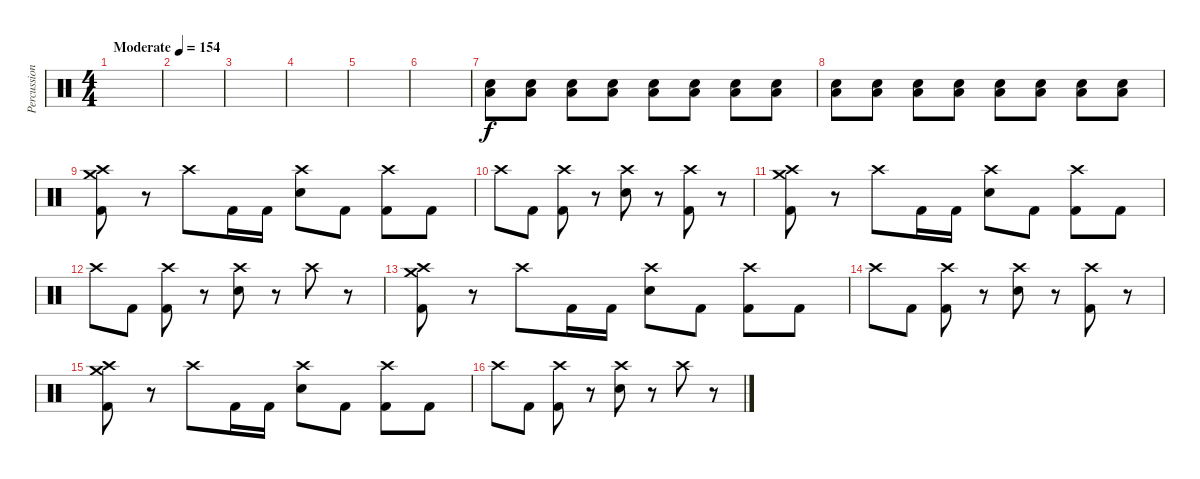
\track ("Percussion" "Percussion") {instrument percussion}
\staff {score}
\articulation defaults
\ts (4 4)
\tempo (154 "Moderate")
\clef neutral
\ks c
|
|
|
|
|
|
("Snare (hit) 2" "Low Floor Tom (hit)").8 ("Snare (hit) 2" "Low Floor Tom (hit)").8 ("Snare (hit) 2" "Low Floor Tom (hit)").8 ("Snare (hit) 2" "Low Floor Tom (hit)").8 ("Snare (hit) 2" "Low Floor Tom (hit)").8 ("Snare (hit) 2" "Low Floor Tom (hit)").8 ("Snare (hit) 2" "Low Floor Tom (hit)").8 ("Snare (hit) 2" "Low Floor Tom (hit)").8 |
("Snare (hit) 2" "Low Floor Tom (hit)").8 ("Snare (hit) 2" "Low Floor Tom (hit)").8 ("Snare (hit) 2" "Low Floor Tom (hit)").8 ("Snare (hit) 2" "Low Floor Tom (hit)").8 ("Snare (hit) 2" "Low Floor Tom (hit)").8 ("Snare (hit) 2" "Low Floor Tom (hit)").8 ("Snare (hit) 2" "Low Floor Tom (hit)").8 ("Snare (hit) 2" "Low Floor Tom (hit)").8 |
("Crash medium (hit)" "Crash high (hit)" "Kick (hit) 2").8 r.8 "Crash high (hit)".8 "Kick (hit) 2".16 "Kick (hit) 2".16 ("Crash high (hit)" "Snare (hit) 2").8 "Kick (hit) 2".8 ("Crash high (hit)" "Kick (hit) 2").8 "Kick (hit) 2".8 |
"Crash high (hit)".8 "Kick (hit) 2".8 ("Crash high (hit)" "Kick (hit) 2").8 r.8 ("Crash high (hit)" "Snare (hit) 2").8 r.8 ("Crash high (hit)" "Kick (hit) 2").8 r.8 |
("Crash high (hit)" "Crash medium (hit)" "Kick (hit) 2").8 r.8 "Crash high (hit)".8 "Kick (hit) 2".16 "Kick (hit) 2".16 ("Crash high (hit)" "Snare (hit) 2").8 "Kick (hit) 2".8 ("Crash high (hit)" "Kick (hit) 2").8 "Kick (hit) 2".8 |
"Crash high (hit)".8 "Kick (hit) 2".8 ("Crash high (hit)" "Kick (hit) 2").8 r.8 ("Crash high (hit)" "Snare (hit) 2").8 r.8 "Crash high (hit)".8 r.8 |
("Crash medium (hit)" "Crash high (hit)" "Kick (hit) 2").8 r.8 "Crash high (hit)".8 "Kick (hit) 2".16 "Kick (hit) 2".16 ("Crash high (hit)" "Snare (hit) 2").8 "Kick (hit) 2".8 ("Crash high (hit)" "Kick (hit) 2").8 "Kick (hit) 2".8 |
"Crash high (hit)".8 "Kick (hit) 2".8 ("Crash high (hit)" "Kick (hit) 2").8 r.8 ("Crash high (hit)" "Snare (hit) 2").8 r.8 ("Crash high (hit)" "Kick (hit) 2").8 r.8 |
("Crash high (hit)" "Crash medium (hit)" "Kick (hit) 2").8 r.8 "Crash high (hit)".8 "Kick (hit) 2".16 "Kick (hit) 2".16 ("Crash high (hit)" "Snare (hit) 2").8 "Kick (hit) 2".8 ("Crash high (hit)" "Kick (hit) 2").8 "Kick (hit) 2".8 |
"Crash high (hit)".8 "Kick (hit) 2".8 ("Crash high (hit)" "Kick (hit) 2").8 r.8 ("Crash high (hit)" "Snare (hit) 2").8 r.8 "Crash high (hit)".8 r.8
